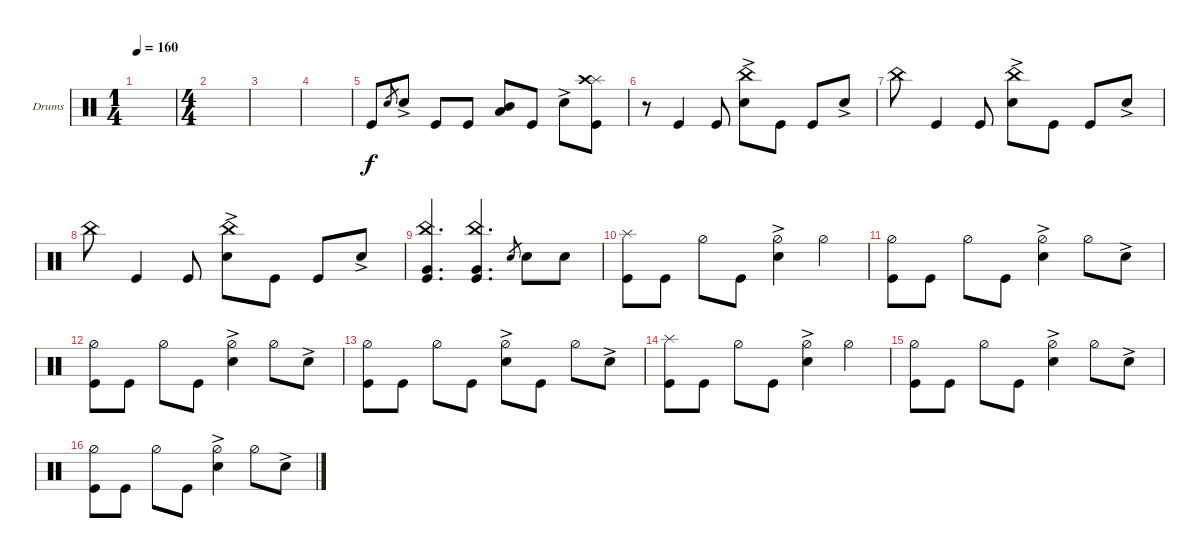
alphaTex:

\defaultSystemsLayout 4
\bracketExtendMode groupsimilarinstruments
\firstSystemTrackNameOrientation horizontal
\otherSystemsTrackNameOrientation horizontal
\track ("Drumkit" "Drums") {instrument percussion}
\staff {score}
\articulation defaults
\ts (1 4)
\ac
\tempo 160
\clef neutral
\scale
0.391473
\ks c
|
\ts (4 4)
\scale
0.391473 |
\scale
0.217054 |
\scale
0.333333 |
\scale
0.333333 "Kick (hit)".8 "Snare (hit) 2".8{gr} "Snare (hit) 2"{ac}.8 "Kick (hit)".8 "Kick (hit)".8 ("Mid Tom (hit)" "Low Tom (hit)").8 "Kick (hit)".8 "Snare (hit) 2"{ac}.8 ("Kick (hit)" "Splash (hit)" "Crash high (hit)").8 |
\scale
0.333333 r.8 "Kick (hit)".4 "Kick (hit)".8 ("Snare (hit) 2"{ac} "China (hit)").8 "Kick (hit)".8 "Kick (hit)".8 "Snare (hit) 2"{ac}.8 |
\scale
0.333333 "China (hit)".8 "Kick (hit)".4 "Kick (hit)".8 ("Snare (hit) 2"{ac} "China (hit)").8 "Kick (hit)".8 "Kick (hit)".8 "Snare (hit) 2"{ac}.8 |
\scale
0.333333 "China (hit)".8 "Kick (hit)".4 "Kick (hit)".8 ("Snare (hit) 2"{ac} "China (hit)").8 "Kick (hit)".8 "Kick (hit)".8 "Snare (hit) 2"{ac}.8 |
\scale
0.333333 ("China (hit)" "Kick (hit)" "Very Low Tom (hit)").4{d} ("Kick (hit)" "Very Low Tom (hit)" "China (hit)").4{d} "Snare (hit) 2".8{gr} "Snare (hit) 2".8 "Snare (hit) 2".8 |
\scale
0.333333 ("Kick (hit)" "Splash (hit)").8 "Kick (hit)".8 "Hi-Hat (half)".8 "Kick (hit)".8 ("Snare (hit) 2"{ac} "Hi-Hat (half)").4 "Hi-Hat (half)".4 |
\scale
0.333333 ("Kick (hit)" "Hi-Hat (half)").8 "Kick (hit)".8 "Hi-Hat (half)".8 "Kick (hit)".8 ("Snare (hit) 2"{ac} "Hi-Hat (half)").4 "Hi-Hat (half)".8 "Snare (hit) 2"{ac}.8 |
\scale
0.333333 ("Kick (hit)" "Hi-Hat (half)").8 "Kick (hit)".8 "Hi-Hat (half)".8 "Kick (hit)".8 ("Snare (hit) 2"{ac} "Hi-Hat (half)").4 "Hi-Hat (half)".8 "Snare (hit) 2"{ac}.8 |
\scale
0.333333 ("Kick (hit)" "Hi-Hat (half)").8 "Kick (hit)".8 "Hi-Hat (half)".8 "Kick (hit)".8 ("Snare (hit) 2"{ac} "Hi-Hat (half)").8 "Kick (hit)".8 "Hi-Hat (half)".8 "Snare (hit) 2"{ac}.8 |
\scale
0.333333 ("Kick (hit)" "Splash (hit)").8 "Kick (hit)".8 "Hi-Hat (half)".8 "Kick (hit)".8 ("Snare (hit) 2"{ac} "Hi-Hat (half)").4 "Hi-Hat (half)".4 |
\scale
0.333333 ("Kick (hit)" "Hi-Hat (half)").8 "Kick (hit)".8 "Hi-Hat (half)".8 "Kick (hit)".8 ("Snare (hit) 2"{ac} "Hi-Hat (half)").4 "Hi-Hat (half)".8 "Snare (hit) 2"{ac}.8 |
\scale
0.333333 ("Kick (hit)" "Hi-Hat (half)").8 "Kick (hit)".8 "Hi-Hat (half)".8 "Kick (hit)".8 ("Snare (hit) 2"{ac} "Hi-Hat (half)").4 "Hi-Hat (half)".8 "Snare (hit) 2"{ac}.8
